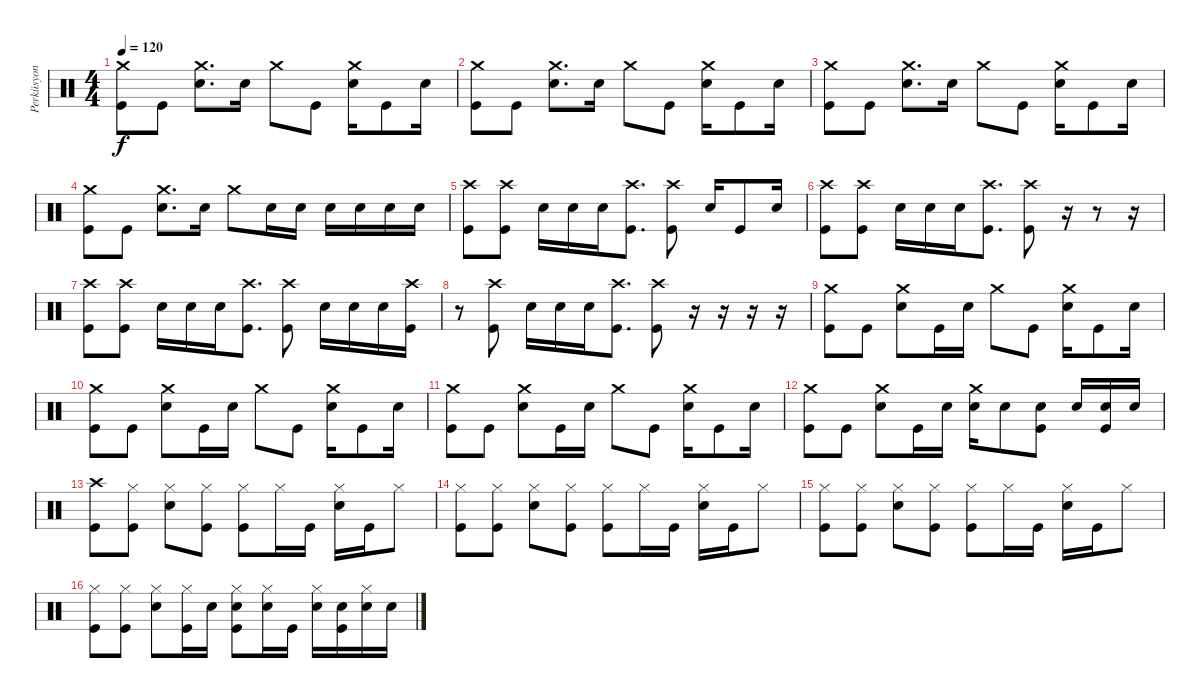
\track ("Perküsyon" "Perküsyon") {instrument percussion}
\staff {score}
\articulation defaults
\ts (4 4)
\tempo 120
\clef neutral
\ks c
("Kick (hit)" "Crash medium (hit)").8{dy f} "Kick (hit)".8 ("Snare (hit) 2" "Crash medium (hit)").8{d} "Snare (hit) 2".16 "Crash medium (hit)".8 "Kick (hit)".8 ("Snare (hit) 2" "Crash medium (hit)").16 "Kick (hit)".8 "Snare (hit) 2".16 |
("Kick (hit)" "Crash medium (hit)").8 "Kick (hit)".8 ("Snare (hit) 2" "Crash medium (hit)").8{d} "Snare (hit) 2".16 "Crash medium (hit)".8 "Kick (hit)".8 ("Snare (hit) 2" "Crash medium (hit)").16 "Kick (hit)".8 "Snare (hit) 2".16 |
("Kick (hit)" "Crash medium (hit)").8 "Kick (hit)".8 ("Snare (hit) 2" "Crash medium (hit)").8{d} "Snare (hit) 2".16 "Crash medium (hit)".8 "Kick (hit)".8 ("Snare (hit) 2" "Crash medium (hit)").16 "Kick (hit)".8 "Snare (hit) 2".16 |
("Kick (hit)" "Crash medium (hit)").8 "Kick (hit)".8 ("Snare (hit) 2" "Crash medium (hit)").8{d} "Snare (hit) 2".16 "Crash medium (hit)".8 "Snare (hit) 2".16 "Snare (hit) 2".16 "Snare (hit) 2".16 "Snare (hit) 2".16 "Snare (hit) 2".16 "Snare (hit) 2".16 |
("Kick (hit)" "Crash high (hit)").8 ("Kick (hit)" "Crash high (hit)").8 "Snare (hit) 2".16 "Snare (hit) 2".16 "Snare (hit) 2".16 ("Kick (hit)" "Crash high (hit)").8{d} ("Kick (hit)" "Crash high (hit)").8 "Snare (hit) 2".16 "Kick (hit)".8 "Snare (hit) 2".16 |
("Kick (hit)" "Crash high (hit)").8 ("Kick (hit)" "Crash high (hit)").8 "Snare (hit) 2".16 "Snare (hit) 2".16 "Snare (hit) 2".16 ("Kick (hit)" "Crash high (hit)").8{d} ("Kick (hit)" "Crash high (hit)").8 r.16 r.8 r.16 |
("Kick (hit)" "Crash high (hit)").8 ("Kick (hit)" "Crash high (hit)").8 "Snare (hit) 2".16 "Snare (hit) 2".16 "Snare (hit) 2".16 ("Kick (hit)" "Crash high (hit)").8{d} ("Kick (hit)" "Crash high (hit)").8 "Snare (hit) 2".16 "Snare (hit) 2".16 "Snare (hit) 2".16 ("Kick (hit)" "Crash high (hit)").16 |
r.8 ("Kick (hit)" "Crash high (hit)").8 "Snare (hit) 2".16 "Snare (hit) 2".16 "Snare (hit) 2".16 ("Kick (hit)" "Crash high (hit)").8{d} ("Kick (hit)" "Crash high (hit)").8 r.16 r.16 r.16 r.16 |
("Kick (hit)" "Crash medium (hit)").8 "Kick (hit)".8 ("Snare (hit) 2" "Crash medium (hit)").8 "Kick (hit)".16 "Snare (hit) 2".16 "Crash medium (hit)".8 "Kick (hit)".8 ("Snare (hit) 2" "Crash medium (hit)").16 "Kick (hit)".8 "Snare (hit) 2".16 |
("Kick (hit)" "Crash medium (hit)").8 "Kick (hit)".8 ("Snare (hit) 2" "Crash medium (hit)").8 "Kick (hit)".16 "Snare (hit) 2".16 "Crash medium (hit)".8 "Kick (hit)".8 ("Snare (hit) 2" "Crash medium (hit)").16 "Kick (hit)".8 "Snare (hit) 2".16 |
("Kick (hit)" "Crash medium (hit)").8 "Kick (hit)".8 ("Snare (hit) 2" "Crash medium (hit)").8 "Kick (hit)".16 "Snare (hit) 2".16 "Crash medium (hit)".8 "Kick (hit)".8 ("Snare (hit) 2" "Crash medium (hit)").16 "Kick (hit)".8 "Snare (hit) 2".16 |
("Kick (hit)" "Crash medium (hit)").8 "Kick (hit)".8 ("Snare (hit) 2" "Crash medium (hit)").8 "Kick (hit)".16 "Snare (hit) 2".16 ("Snare (hit) 2" "Crash medium (hit)").16 "Snare (hit) 2".8 ("Kick (hit)" "Snare (hit) 2").8 "Snare (hit) 2".16 ("Kick (hit)" "Snare (hit) 2").16 "Snare (hit) 2".16 |
("Kick (hit)" "Crash high (hit)").8 ("Kick (hit)" "Hi-Hat (closed)").8 ("Snare (hit) 2" "Hi-Hat (closed)").8 ("Kick (hit)" "Hi-Hat (closed)").8 ("Kick (hit)" "Hi-Hat (closed)").8 "Hi-Hat (closed)".16 "Kick (hit)".16 ("Snare (hit) 2" "Hi-Hat (closed)").16 "Kick (hit)".16 "Hi-Hat (closed)".8 |
("Kick (hit)" "Hi-Hat (closed)").8 ("Kick (hit)" "Hi-Hat (closed)").8 ("Snare (hit) 2" "Hi-Hat (closed)").8 ("Kick (hit)" "Hi-Hat (closed)").8 ("Kick (hit)" "Hi-Hat (closed)").8 "Hi-Hat (closed)".16 "Kick (hit)".16 ("Snare (hit) 2" "Hi-Hat (closed)").16 "Kick (hit)".16 "Hi-Hat (closed)".8 |
("Kick (hit)" "Hi-Hat (closed)").8 ("Kick (hit)" "Hi-Hat (closed)").8 ("Snare (hit) 2" "Hi-Hat (closed)").8 ("Kick (hit)" "Hi-Hat (closed)").8 ("Kick (hit)" "Hi-Hat (closed)").8 "Hi-Hat (closed)".16 "Kick (hit)".16 ("Snare (hit) 2" "Hi-Hat (closed)").16 "Kick (hit)".16 "Hi-Hat (closed)".8 |
("Kick (hit)" "Hi-Hat (closed)").8 ("Kick (hit)" "Hi-Hat (closed)").8 ("Snare (hit) 2" "Hi-Hat (closed)").8 ("Kick (hit)" "Hi-Hat (closed)").16 "Snare (hit) 2".16 ("Kick (hit)" "Snare (hit) 2" "Hi-Hat (closed)").8 ("Snare (hit) 2" "Hi-Hat (closed)").16 "Kick (hit)".16 ("Snare (hit) 2" "Hi-Hat (closed)").16 ("Kick (hit)" "Snare (hit) 2").16 ("Snare (hit) 2" "Hi-Hat (closed)").16 "Snare (hit) 2".16
